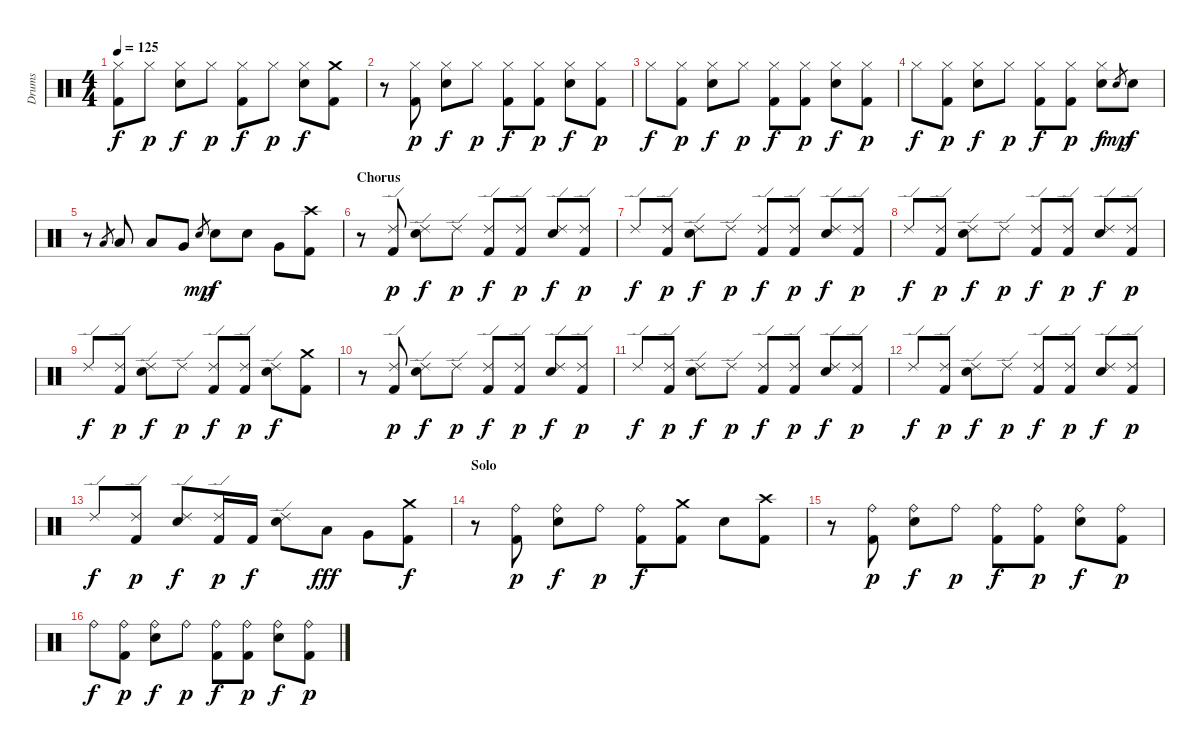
\track ("Drums" "Drums") {instrument percussion}
\staff {score}
\articulation defaults
\ts (4 4)
\tempo 125
\clef neutral
\ks c
("Hi-Hat (closed)" "Kick (hit) 2").8{dy f} "Hi-Hat (closed)".8{dy p} ("Hi-Hat (closed)" "Snare (hit) 2").8{dy f} "Hi-Hat (closed)".8{dy p} ("Hi-Hat (closed)" "Kick (hit) 2").8{dy f} "Hi-Hat (closed)".8{dy p} ("Hi-Hat (closed)" "Snare (hit) 2").8{dy f} ("Crash medium (hit)" "Kick (hit) 2").8 |
r.8 ("Hi-Hat (closed)" "Kick (hit) 2").8{dy p} ("Hi-Hat (closed)" "Snare (hit) 2").8{dy f} "Hi-Hat (closed)".8{dy p} ("Hi-Hat (closed)" "Kick (hit) 2").8{dy f} ("Hi-Hat (closed)" "Kick (hit) 2").8{dy p} ("Hi-Hat (closed)" "Snare (hit) 2").8{dy f} ("Hi-Hat (closed)" "Kick (hit) 2").8{dy p} |
"Hi-Hat (closed)".8{dy f} ("Hi-Hat (closed)" "Kick (hit) 2").8{dy p} ("Hi-Hat (closed)" "Snare (hit) 2").8{dy f} "Hi-Hat (closed)".8{dy p} ("Hi-Hat (closed)" "Kick (hit) 2").8{dy f} ("Hi-Hat (closed)" "Kick (hit) 2").8{dy p} ("Hi-Hat (closed)" "Snare (hit) 2").8{dy f} ("Hi-Hat (closed)" "Kick (hit) 2").8{dy p} |
"Hi-Hat (closed)".8{dy f} ("Hi-Hat (closed)" "Kick (hit) 2").8{dy p} ("Hi-Hat (closed)" "Snare (hit) 2").8{dy f} "Hi-Hat (closed)".8{dy p} ("Hi-Hat (closed)" "Kick (hit) 2").8{dy f} ("Hi-Hat (closed)" "Kick (hit) 2").8{dy p} ("Hi-Hat (closed)" "Snare (hit) 2").8{dy f} "Snare (hit) 2".8{gr dy mp} "Snare (hit) 2".8{dy f} |
r.8 "Low Tom (hit)".8{gr} "Low Tom (hit)".8 "Low Tom (hit)".8 "Very Low Tom (hit)".8 "Snare (hit) 2".8{gr dy mp} "Snare (hit) 2".8{dy f} "Snare (hit) 2".8 "Very Low Tom (hit)".8 ("Crash high (hit)" "Kick (hit) 2").8 |
\section ("" "Chorus")
r.8 ("Ride (edge) 2" "Kick (hit) 2").8{dy p} ("Ride (edge) 2" "Snare (hit) 2").8{dy f} "Ride (edge) 2".8{dy p} ("Ride (edge) 2" "Kick (hit) 2").8{dy f} ("Ride (edge) 2" "Kick (hit) 2").8{dy p} ("Ride (edge) 2" "Snare (hit) 2").8{dy f} ("Ride (edge) 2" "Kick (hit) 2").8{dy p} |
"Ride (edge) 2".8{dy f} ("Ride (edge) 2" "Kick (hit) 2").8{dy p} ("Ride (edge) 2" "Snare (hit) 2").8{dy f} "Ride (edge) 2".8{dy p} ("Ride (edge) 2" "Kick (hit) 2").8{dy f} ("Ride (edge) 2" "Kick (hit) 2").8{dy p} ("Ride (edge) 2" "Snare (hit) 2").8{dy f} ("Ride (edge) 2" "Kick (hit) 2").8{dy p} |
"Ride (edge) 2".8{dy f} ("Ride (edge) 2" "Kick (hit) 2").8{dy p} ("Ride (edge) 2" "Snare (hit) 2").8{dy f} "Ride (edge) 2".8{dy p} ("Ride (edge) 2" "Kick (hit) 2").8{dy f} ("Ride (edge) 2" "Kick (hit) 2").8{dy p} ("Ride (edge) 2" "Snare (hit) 2").8{dy f} ("Ride (edge) 2" "Kick (hit) 2").8{dy p} |
"Ride (edge) 2".8{dy f} ("Ride (edge) 2" "Kick (hit) 2").8{dy p} ("Ride (edge) 2" "Snare (hit) 2").8{dy f} "Ride (edge) 2".8{dy p} ("Ride (edge) 2" "Kick (hit) 2").8{dy f} ("Ride (edge) 2" "Kick (hit) 2").8{dy p} ("Ride (edge) 2" "Snare (hit) 2").8{dy f} ("Crash medium (hit)" "Kick (hit) 2").8 |
r.8 ("Ride (edge) 2" "Kick (hit) 2").8{dy p} ("Ride (edge) 2" "Snare (hit) 2").8{dy f} "Ride (edge) 2".8{dy p} ("Ride (edge) 2" "Kick (hit) 2").8{dy f} ("Ride (edge) 2" "Kick (hit) 2").8{dy p} ("Ride (edge) 2" "Snare (hit) 2").8{dy f} ("Ride (edge) 2" "Kick (hit) 2").8{dy p} |
"Ride (edge) 2".8{dy f} ("Ride (edge) 2" "Kick (hit) 2").8{dy p} ("Ride (edge) 2" "Snare (hit) 2").8{dy f} "Ride (edge) 2".8{dy p} ("Ride (edge) 2" "Kick (hit) 2").8{dy f} ("Ride (edge) 2" "Kick (hit) 2").8{dy p} ("Ride (edge) 2" "Snare (hit) 2").8{dy f} ("Ride (edge) 2" "Kick (hit) 2").8{dy p} |
"Ride (edge) 2".8{dy f} ("Ride (edge) 2" "Kick (hit) 2").8{dy p} ("Ride (edge) 2" "Snare (hit) 2").8{dy f} "Ride (edge) 2".8{dy p} ("Ride (edge) 2" "Kick (hit) 2").8{dy f} ("Ride (edge) 2" "Kick (hit) 2").8{dy p} ("Ride (edge) 2" "Snare (hit) 2").8{dy f} ("Ride (edge) 2" "Kick (hit) 2").8{dy p} |
"Ride (edge) 2".8{dy f} ("Ride (edge) 2" "Kick (hit) 2").8{dy p} ("Ride (edge) 2" "Snare (hit) 2").8{dy f} ("Ride (edge) 2" "Kick (hit) 2").16{dy p} "Kick (hit) 2".16{dy f} ("Ride (edge) 2" "Snare (hit) 2").8 "Low Tom (hit)".8{dy fff} "Very Low Tom (hit)".8 ("Crash medium (hit)" "Kick (hit) 2").8{dy f} |
\section ("" "Solo")
r.8 ("Ride (bell)" "Kick (hit) 2").8{dy p} ("Ride (bell)" "Snare (hit) 2").8{dy f} "Ride (bell)".8{dy p} ("Ride (bell)" "Kick (hit) 2").8{dy f} ("Crash medium (hit)" "Kick (hit) 2").8 "Snare (hit) 2".8 ("Crash high (hit)" "Kick (hit) 2").8 |
r.8 ("Ride (bell)" "Kick (hit) 2").8{dy p} ("Ride (bell)" "Snare (hit) 2").8{dy f} "Ride (bell)".8{dy p} ("Ride (bell)" "Kick (hit) 2").8{dy f} ("Ride (bell)" "Kick (hit) 2").8{dy p} ("Ride (bell)" "Snare (hit) 2").8{dy f} ("Ride (bell)" "Kick (hit) 2").8{dy p} |
"Ride (bell)".8{dy f} ("Ride (bell)" "Kick (hit) 2").8{dy p} ("Ride (bell)" "Snare (hit) 2").8{dy f} "Ride (bell)".8{dy p} ("Ride (bell)" "Kick (hit) 2").8{dy f} ("Ride (bell)" "Kick (hit) 2").8{dy p} ("Ride (bell)" "Snare (hit) 2").8{dy f} ("Ride (bell)" "Kick (hit) 2").8{dy p}
